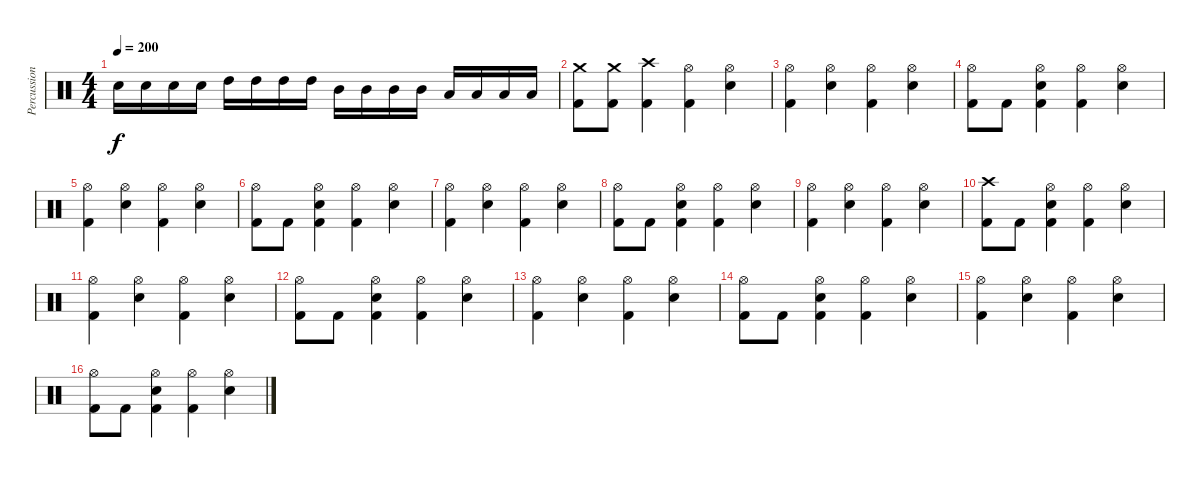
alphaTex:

\track ("Percussion" "Percussion") {instrument percussion}
\staff {score}
\articulation defaults
\ts (4 4)
\tempo 200
\clef neutral
\ks c "Snare (hit) 2".16{dy f volume 13} "Snare (hit) 2".16 "Snare (hit) 2".16 "Snare (hit) 2".16 "High Tom (hit)".16 "High Tom (hit)".16 "High Tom (hit)".16 "High Tom (hit)".16 "Mid Tom (hit)".16 "Mid Tom (hit)".16 "Mid Tom (hit)".16 "Mid Tom (hit)".16 "Low Tom (hit)".16 "Low Tom (hit)".16 "Low Tom (hit)".16 "Low Tom (hit)".16
|
("Crash medium (hit)" "Kick (hit) 2").8 ("Crash medium (hit)" "Kick (hit) 2").8 ("Crash high (hit)" "Kick (hit) 2").4 ("Hi-Hat (open)" "Kick (hit) 2").4 ("Hi-Hat (open)" "Snare (hit) 2").4 |
("Hi-Hat (open)" "Kick (hit) 2").4 ("Hi-Hat (open)" "Snare (hit) 2").4 ("Hi-Hat (open)" "Kick (hit) 2").4 ("Hi-Hat (open)" "Snare (hit) 2").4 |
("Hi-Hat (open)" "Kick (hit) 2").8 "Kick (hit) 2".8 ("Hi-Hat (open)" "Snare (hit) 2" "Kick (hit) 2").4 ("Hi-Hat (open)" "Kick (hit) 2").4 ("Hi-Hat (open)" "Snare (hit) 2").4 |
("Hi-Hat (open)" "Kick (hit) 2").4 ("Hi-Hat (open)" "Snare (hit) 2").4 ("Hi-Hat (open)" "Kick (hit) 2").4 ("Hi-Hat (open)" "Snare (hit) 2").4 |
("Hi-Hat (open)" "Kick (hit) 2").8 "Kick (hit) 2".8 ("Hi-Hat (open)" "Snare (hit) 2" "Kick (hit) 2").4 ("Hi-Hat (open)" "Kick (hit) 2").4 ("Hi-Hat (open)" "Snare (hit) 2").4 |
("Hi-Hat (open)" "Kick (hit) 2").4 ("Hi-Hat (open)" "Snare (hit) 2").4 ("Hi-Hat (open)" "Kick (hit) 2").4 ("Hi-Hat (open)" "Snare (hit) 2").4 |
("Hi-Hat (open)" "Kick (hit) 2").8 "Kick (hit) 2".8 ("Hi-Hat (open)" "Snare (hit) 2" "Kick (hit) 2").4 ("Hi-Hat (open)" "Kick (hit) 2").4 ("Hi-Hat (open)" "Snare (hit) 2").4 |
("Hi-Hat (open)" "Kick (hit) 2").4 ("Hi-Hat (open)" "Snare (hit) 2").4 ("Hi-Hat (open)" "Kick (hit) 2").4 ("Hi-Hat (open)" "Snare (hit) 2").4 |
("Crash high (hit)" "Kick (hit) 2").8 "Kick (hit) 2".8 ("Hi-Hat (open)" "Snare (hit) 2" "Kick (hit) 2").4 ("Hi-Hat (open)" "Kick (hit) 2").4 ("Hi-Hat (open)" "Snare (hit) 2").4 |
("Hi-Hat (open)" "Kick (hit) 2").4 ("Hi-Hat (open)" "Snare (hit) 2").4 ("Hi-Hat (open)" "Kick (hit) 2").4 ("Hi-Hat (open)" "Snare (hit) 2").4 |
("Hi-Hat (open)" "Kick (hit) 2").8 "Kick (hit) 2".8 ("Hi-Hat (open)" "Snare (hit) 2" "Kick (hit) 2").4 ("Hi-Hat (open)" "Kick (hit) 2").4 ("Hi-Hat (open)" "Snare (hit) 2").4 |
("Hi-Hat (open)" "Kick (hit) 2").4 ("Hi-Hat (open)" "Snare (hit) 2").4 ("Hi-Hat (open)" "Kick (hit) 2").4 ("Hi-Hat (open)" "Snare (hit) 2").4 |
("Hi-Hat (open)" "Kick (hit) 2").8 "Kick (hit) 2".8 ("Hi-Hat (open)" "Snare (hit) 2" "Kick (hit) 2").4 ("Hi-Hat (open)" "Kick (hit) 2").4 ("Hi-Hat (open)" "Snare (hit) 2").4 |
("Hi-Hat (open)" "Kick (hit) 2").4 ("Hi-Hat (open)" "Snare (hit) 2").4 ("Hi-Hat (open)" "Kick (hit) 2").4 ("Hi-Hat (open)" "Snare (hit) 2").4 |
("Hi-Hat (open)" "Kick (hit) 2").8 "Kick (hit) 2".8 ("Hi-Hat (open)" "Snare (hit) 2" "Kick (hit) 2").4 ("Hi-Hat (open)" "Kick (hit) 2").4 ("Hi-Hat (open)" "Snare (hit) 2").4
